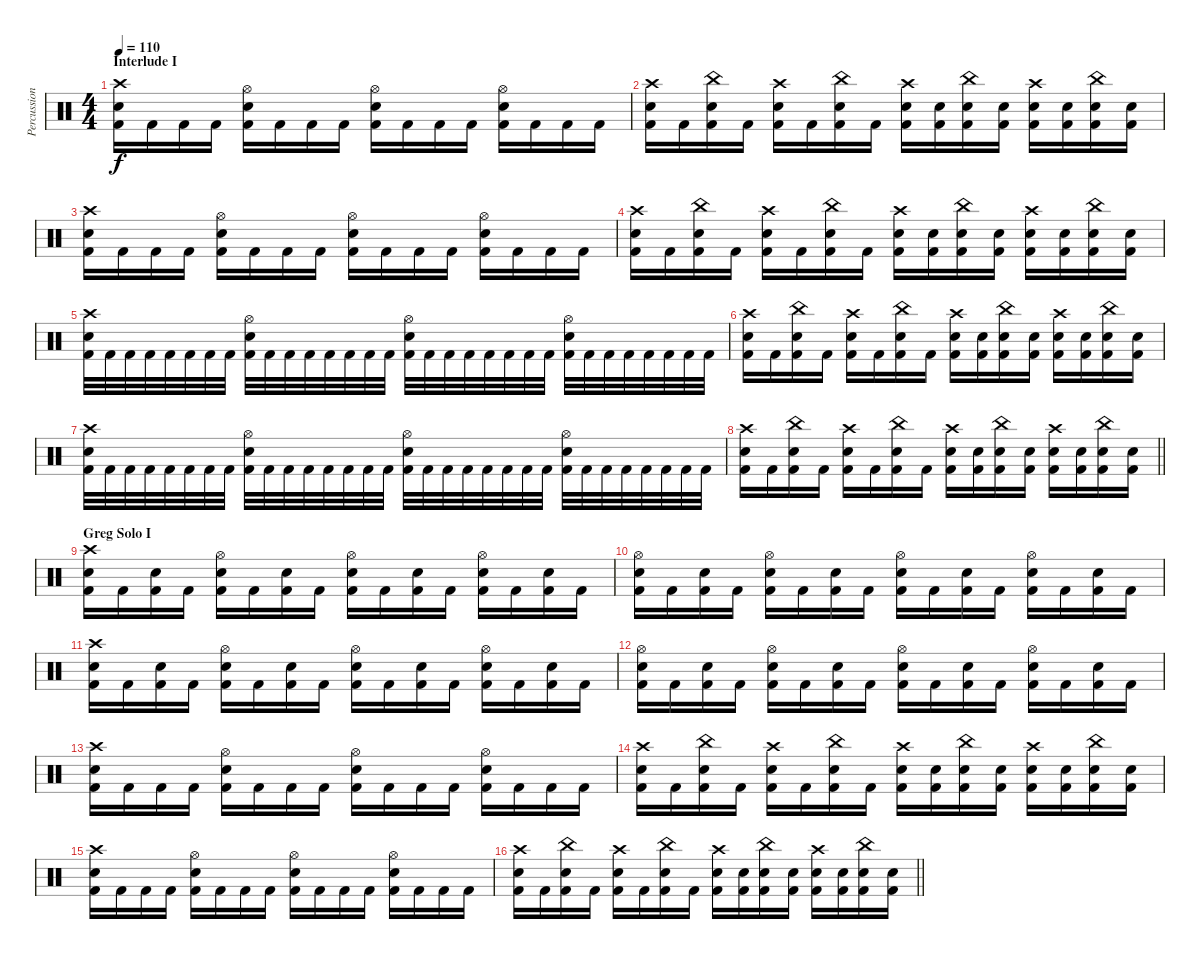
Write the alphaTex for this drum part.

\track ("Percussion" "Percussion") {instrument percussion}
\staff {score}
\articulation defaults
\ts (4 4)
\section ("" "Interlude I")
\tempo 110
\clef neutral
\ks c
("Crash high (hit)" "Electric Snare (hit)" "Kick (hit) 2").16{dy f} "Kick (hit) 2".16 "Kick (hit) 2".16 "Kick (hit) 2".16 ("Hi-Hat (open)" "Electric Snare (hit)" "Kick (hit) 2").16 "Kick (hit) 2".16 "Kick (hit) 2".16 "Kick (hit) 2".16 ("Hi-Hat (open)" "Electric Snare (hit)" "Kick (hit) 2").16 "Kick (hit) 2".16 "Kick (hit) 2".16 "Kick (hit) 2".16 ("Hi-Hat (open)" "Electric Snare (hit)" "Kick (hit) 2").16 "Kick (hit) 2".16 "Kick (hit) 2".16 "Kick (hit) 2".16 |
("Crash high (hit)" "Electric Snare (hit)" "Kick (hit) 2").16 "Kick (hit) 2".16 ("China (hit)" "Electric Snare (hit)" "Kick (hit) 2").16 "Kick (hit) 2".16 ("Crash high (hit)" "Electric Snare (hit)" "Kick (hit) 2").16 "Kick (hit) 2".16 ("China (hit)" "Electric Snare (hit)" "Kick (hit) 2").16 "Kick (hit) 2".16 ("Crash high (hit)" "Electric Snare (hit)" "Kick (hit) 2").16 ("Electric Snare (hit)" "Kick (hit) 2").16 ("China (hit)" "Electric Snare (hit)" "Kick (hit) 2").16 ("Electric Snare (hit)" "Kick (hit) 2").16 ("Crash high (hit)" "Electric Snare (hit)" "Kick (hit) 2").16 ("Electric Snare (hit)" "Kick (hit) 2").16 ("China (hit)" "Electric Snare (hit)" "Kick (hit) 2").16 ("Electric Snare (hit)" "Kick (hit) 2").16 |
("Crash high (hit)" "Electric Snare (hit)" "Kick (hit) 2").16 "Kick (hit) 2".16 "Kick (hit) 2".16 "Kick (hit) 2".16 ("Hi-Hat (open)" "Electric Snare (hit)" "Kick (hit) 2").16 "Kick (hit) 2".16 "Kick (hit) 2".16 "Kick (hit) 2".16 ("Hi-Hat (open)" "Electric Snare (hit)" "Kick (hit) 2").16 "Kick (hit) 2".16 "Kick (hit) 2".16 "Kick (hit) 2".16 ("Hi-Hat (open)" "Electric Snare (hit)" "Kick (hit) 2").16 "Kick (hit) 2".16 "Kick (hit) 2".16 "Kick (hit) 2".16 |
("Crash high (hit)" "Electric Snare (hit)" "Kick (hit) 2").16 "Kick (hit) 2".16 ("China (hit)" "Electric Snare (hit)" "Kick (hit) 2").16 "Kick (hit) 2".16 ("Crash high (hit)" "Electric Snare (hit)" "Kick (hit) 2").16 "Kick (hit) 2".16 ("China (hit)" "Electric Snare (hit)" "Kick (hit) 2").16 "Kick (hit) 2".16 ("Crash high (hit)" "Electric Snare (hit)" "Kick (hit) 2").16 ("Electric Snare (hit)" "Kick (hit) 2").16 ("China (hit)" "Electric Snare (hit)" "Kick (hit) 2").16 ("Electric Snare (hit)" "Kick (hit) 2").16 ("Crash high (hit)" "Electric Snare (hit)" "Kick (hit) 2").16 ("Electric Snare (hit)" "Kick (hit) 2").16 ("China (hit)" "Electric Snare (hit)" "Kick (hit) 2").16 ("Electric Snare (hit)" "Kick (hit) 2").16 |
("Crash high (hit)" "Electric Snare (hit)" "Kick (hit) 2").32 "Kick (hit) 2".32 "Kick (hit) 2".32 "Kick (hit) 2".32 "Kick (hit) 2".32 "Kick (hit) 2".32 "Kick (hit) 2".32 "Kick (hit) 2".32 ("Hi-Hat (open)" "Electric Snare (hit)" "Kick (hit) 2").32 "Kick (hit) 2".32 "Kick (hit) 2".32 "Kick (hit) 2".32 "Kick (hit) 2".32 "Kick (hit) 2".32 "Kick (hit) 2".32 "Kick (hit) 2".32 ("Hi-Hat (open)" "Electric Snare (hit)" "Kick (hit) 2").32 "Kick (hit) 2".32 "Kick (hit) 2".32 "Kick (hit) 2".32 "Kick (hit) 2".32 "Kick (hit) 2".32 "Kick (hit) 2".32 "Kick (hit) 2".32 ("Hi-Hat (open)" "Electric Snare (hit)" "Kick (hit) 2").32 "Kick (hit) 2".32 "Kick (hit) 2".32 "Kick (hit) 2".32 "Kick (hit) 2".32 "Kick (hit) 2".32 "Kick (hit) 2".32 "Kick (hit) 2".32 |
("Crash high (hit)" "Electric Snare (hit)" "Kick (hit) 2").16 "Kick (hit) 2".16 ("China (hit)" "Electric Snare (hit)" "Kick (hit) 2").16 "Kick (hit) 2".16 ("Crash high (hit)" "Electric Snare (hit)" "Kick (hit) 2").16 "Kick (hit) 2".16 ("China (hit)" "Electric Snare (hit)" "Kick (hit) 2").16 "Kick (hit) 2".16 ("Crash high (hit)" "Electric Snare (hit)" "Kick (hit) 2").16 ("Electric Snare (hit)" "Kick (hit) 2").16 ("China (hit)" "Electric Snare (hit)" "Kick (hit) 2").16 ("Electric Snare (hit)" "Kick (hit) 2").16 ("Crash high (hit)" "Electric Snare (hit)" "Kick (hit) 2").16 ("Electric Snare (hit)" "Kick (hit) 2").16 ("China (hit)" "Electric Snare (hit)" "Kick (hit) 2").16 ("Electric Snare (hit)" "Kick (hit) 2").16 |
("Crash high (hit)" "Electric Snare (hit)" "Kick (hit) 2").32 "Kick (hit) 2".32 "Kick (hit) 2".32 "Kick (hit) 2".32 "Kick (hit) 2".32 "Kick (hit) 2".32 "Kick (hit) 2".32 "Kick (hit) 2".32 ("Hi-Hat (open)" "Electric Snare (hit)" "Kick (hit) 2").32 "Kick (hit) 2".32 "Kick (hit) 2".32 "Kick (hit) 2".32 "Kick (hit) 2".32 "Kick (hit) 2".32 "Kick (hit) 2".32 "Kick (hit) 2".32 ("Hi-Hat (open)" "Electric Snare (hit)" "Kick (hit) 2").32 "Kick (hit) 2".32 "Kick (hit) 2".32 "Kick (hit) 2".32 "Kick (hit) 2".32 "Kick (hit) 2".32 "Kick (hit) 2".32 "Kick (hit) 2".32 ("Hi-Hat (open)" "Electric Snare (hit)" "Kick (hit) 2").32 "Kick (hit) 2".32 "Kick (hit) 2".32 "Kick (hit) 2".32 "Kick (hit) 2".32 "Kick (hit) 2".32 "Kick (hit) 2".32 "Kick (hit) 2".32 |
\barLineRight lightlight
("Crash high (hit)" "Electric Snare (hit)" "Kick (hit) 2").16 "Kick (hit) 2".16 ("China (hit)" "Electric Snare (hit)" "Kick (hit) 2").16 "Kick (hit) 2".16 ("Crash high (hit)" "Electric Snare (hit)" "Kick (hit) 2").16 "Kick (hit) 2".16 ("China (hit)" "Electric Snare (hit)" "Kick (hit) 2").16 "Kick (hit) 2".16 ("Crash high (hit)" "Electric Snare (hit)" "Kick (hit) 2").16 ("Electric Snare (hit)" "Kick (hit) 2").16 ("China (hit)" "Electric Snare (hit)" "Kick (hit) 2").16 ("Electric Snare (hit)" "Kick (hit) 2").16 ("Crash high (hit)" "Electric Snare (hit)" "Kick (hit) 2").16 ("Electric Snare (hit)" "Kick (hit) 2").16 ("China (hit)" "Electric Snare (hit)" "Kick (hit) 2").16 ("Electric Snare (hit)" "Kick (hit) 2").16 |
\section ("" "Greg Solo I")
("Crash high (hit)" "Electric Snare (hit)" "Kick (hit) 2").16 "Kick (hit) 2".16 ("Electric Snare (hit)" "Kick (hit) 2").16 "Kick (hit) 2".16 ("Hi-Hat (open)" "Electric Snare (hit)" "Kick (hit) 2").16 "Kick (hit) 2".16 ("Electric Snare (hit)" "Kick (hit) 2").16 "Kick (hit) 2".16 ("Hi-Hat (open)" "Electric Snare (hit)" "Kick (hit) 2").16 "Kick (hit) 2".16 ("Electric Snare (hit)" "Kick (hit) 2").16 "Kick (hit) 2".16 ("Hi-Hat (open)" "Electric Snare (hit)" "Kick (hit) 2").16 "Kick (hit) 2".16 ("Electric Snare (hit)" "Kick (hit) 2").16 "Kick (hit) 2".16 |
("Hi-Hat (open)" "Electric Snare (hit)" "Kick (hit) 2").16 "Kick (hit) 2".16 ("Electric Snare (hit)" "Kick (hit) 2").16 "Kick (hit) 2".16 ("Hi-Hat (open)" "Electric Snare (hit)" "Kick (hit) 2").16 "Kick (hit) 2".16 ("Electric Snare (hit)" "Kick (hit) 2").16 "Kick (hit) 2".16 ("Hi-Hat (open)" "Electric Snare (hit)" "Kick (hit) 2").16 "Kick (hit) 2".16 ("Electric Snare (hit)" "Kick (hit) 2").16 "Kick (hit) 2".16 ("Hi-Hat (open)" "Electric Snare (hit)" "Kick (hit) 2").16 "Kick (hit) 2".16 ("Electric Snare (hit)" "Kick (hit) 2").16 "Kick (hit) 2".16 |
("Crash high (hit)" "Electric Snare (hit)" "Kick (hit) 2").16 "Kick (hit) 2".16 ("Electric Snare (hit)" "Kick (hit) 2").16 "Kick (hit) 2".16 ("Hi-Hat (open)" "Electric Snare (hit)" "Kick (hit) 2").16 "Kick (hit) 2".16 ("Electric Snare (hit)" "Kick (hit) 2").16 "Kick (hit) 2".16 ("Hi-Hat (open)" "Electric Snare (hit)" "Kick (hit) 2").16 "Kick (hit) 2".16 ("Electric Snare (hit)" "Kick (hit) 2").16 "Kick (hit) 2".16 ("Hi-Hat (open)" "Electric Snare (hit)" "Kick (hit) 2").16 "Kick (hit) 2".16 ("Electric Snare (hit)" "Kick (hit) 2").16 "Kick (hit) 2".16 |
("Hi-Hat (open)" "Electric Snare (hit)" "Kick (hit) 2").16 "Kick (hit) 2".16 ("Electric Snare (hit)" "Kick (hit) 2").16 "Kick (hit) 2".16 ("Hi-Hat (open)" "Electric Snare (hit)" "Kick (hit) 2").16 "Kick (hit) 2".16 ("Electric Snare (hit)" "Kick (hit) 2").16 "Kick (hit) 2".16 ("Hi-Hat (open)" "Electric Snare (hit)" "Kick (hit) 2").16 "Kick (hit) 2".16 ("Electric Snare (hit)" "Kick (hit) 2").16 "Kick (hit) 2".16 ("Hi-Hat (open)" "Electric Snare (hit)" "Kick (hit) 2").16 "Kick (hit) 2".16 ("Electric Snare (hit)" "Kick (hit) 2").16 "Kick (hit) 2".16 |
("Crash high (hit)" "Electric Snare (hit)" "Kick (hit) 2").16 "Kick (hit) 2".16 "Kick (hit) 2".16 "Kick (hit) 2".16 ("Hi-Hat (open)" "Electric Snare (hit)" "Kick (hit) 2").16 "Kick (hit) 2".16 "Kick (hit) 2".16 "Kick (hit) 2".16 ("Hi-Hat (open)" "Electric Snare (hit)" "Kick (hit) 2").16 "Kick (hit) 2".16 "Kick (hit) 2".16 "Kick (hit) 2".16 ("Hi-Hat (open)" "Electric Snare (hit)" "Kick (hit) 2").16 "Kick (hit) 2".16 "Kick (hit) 2".16 "Kick (hit) 2".16 |
("Crash high (hit)" "Electric Snare (hit)" "Kick (hit) 2").16 "Kick (hit) 2".16 ("China (hit)" "Electric Snare (hit)" "Kick (hit) 2").16 "Kick (hit) 2".16 ("Crash high (hit)" "Electric Snare (hit)" "Kick (hit) 2").16 "Kick (hit) 2".16 ("China (hit)" "Electric Snare (hit)" "Kick (hit) 2").16 "Kick (hit) 2".16 ("Crash high (hit)" "Electric Snare (hit)" "Kick (hit) 2").16 ("Electric Snare (hit)" "Kick (hit) 2").16 ("China (hit)" "Electric Snare (hit)" "Kick (hit) 2").16 ("Electric Snare (hit)" "Kick (hit) 2").16 ("Crash high (hit)" "Electric Snare (hit)" "Kick (hit) 2").16 ("Electric Snare (hit)" "Kick (hit) 2").16 ("China (hit)" "Electric Snare (hit)" "Kick (hit) 2").16 ("Electric Snare (hit)" "Kick (hit) 2").16 |
("Crash high (hit)" "Electric Snare (hit)" "Kick (hit) 2").16 "Kick (hit) 2".16 "Kick (hit) 2".16 "Kick (hit) 2".16 ("Hi-Hat (open)" "Electric Snare (hit)" "Kick (hit) 2").16 "Kick (hit) 2".16 "Kick (hit) 2".16 "Kick (hit) 2".16 ("Hi-Hat (open)" "Electric Snare (hit)" "Kick (hit) 2").16 "Kick (hit) 2".16 "Kick (hit) 2".16 "Kick (hit) 2".16 ("Hi-Hat (open)" "Electric Snare (hit)" "Kick (hit) 2").16 "Kick (hit) 2".16 "Kick (hit) 2".16 "Kick (hit) 2".16 |
\barLineRight lightlight
("Crash high (hit)" "Electric Snare (hit)" "Kick (hit) 2").16 "Kick (hit) 2".16 ("China (hit)" "Electric Snare (hit)" "Kick (hit) 2").16 "Kick (hit) 2".16 ("Crash high (hit)" "Electric Snare (hit)" "Kick (hit) 2").16 "Kick (hit) 2".16 ("China (hit)" "Electric Snare (hit)" "Kick (hit) 2").16 "Kick (hit) 2".16 ("Crash high (hit)" "Electric Snare (hit)" "Kick (hit) 2").16 ("Electric Snare (hit)" "Kick (hit) 2").16 ("China (hit)" "Electric Snare (hit)" "Kick (hit) 2").16 ("Electric Snare (hit)" "Kick (hit) 2").16 ("Crash high (hit)" "Electric Snare (hit)" "Kick (hit) 2").16 ("Electric Snare (hit)" "Kick (hit) 2").16 ("China (hit)" "Electric Snare (hit)" "Kick (hit) 2").16 ("Electric Snare (hit)" "Kick (hit) 2").16
